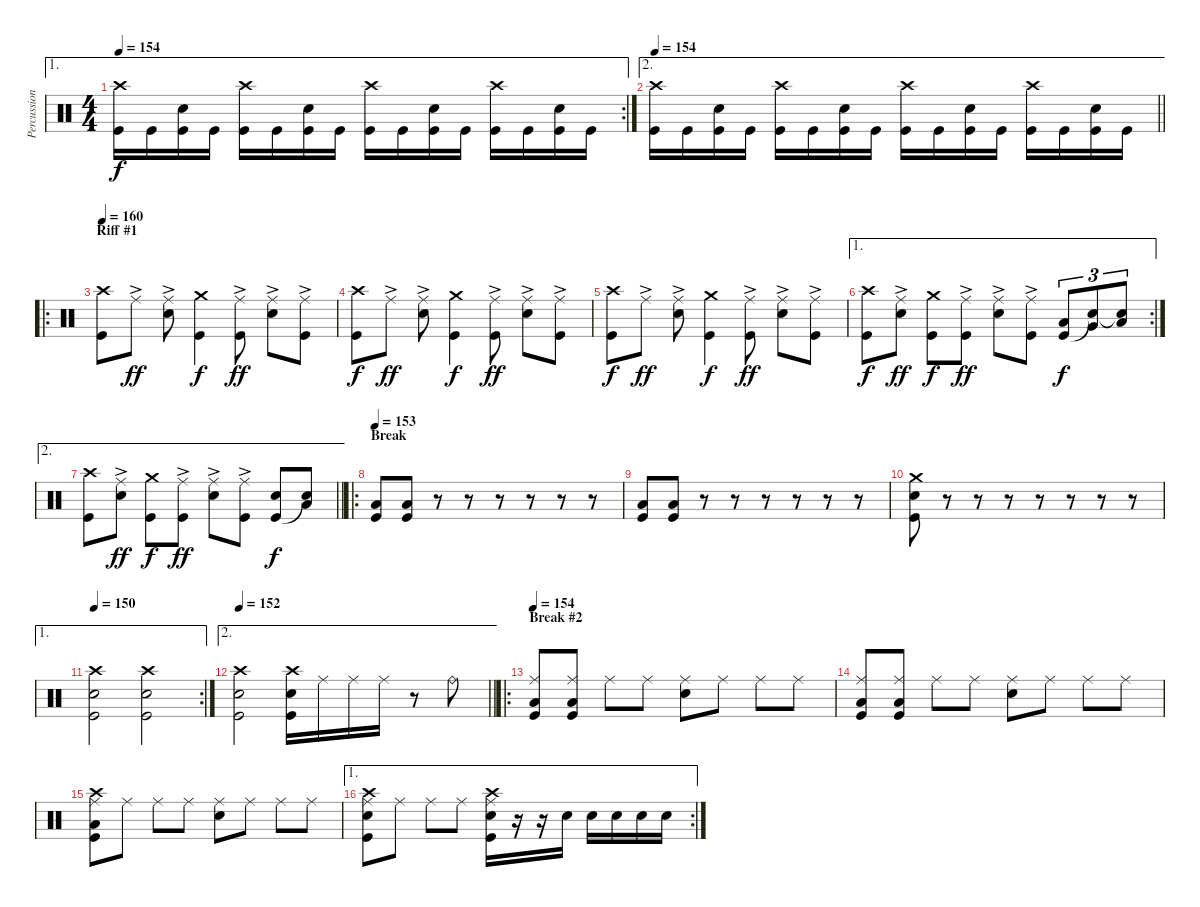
\track ("Percussion" "Percussion") {instrument percussion}
\staff {score}
\articulation defaults
\ae 1
\rc 2
\ts (4 4)
\tempo 154
\clef neutral
\ks c
("Crash high (hit)" "Kick (hit)").16{dy f} "Kick (hit)".16 ("Electric Snare (hit)" "Kick (hit)").16 "Kick (hit)".16 ("Crash high (hit)" "Kick (hit)").16 "Kick (hit)".16 ("Electric Snare (hit)" "Kick (hit)").16 "Kick (hit)".16 ("Crash high (hit)" "Kick (hit)").16 "Kick (hit)".16 ("Electric Snare (hit)" "Kick (hit)").16 "Kick (hit)".16 ("Crash high (hit)" "Kick (hit)").16 "Kick (hit)".16 ("Electric Snare (hit)" "Kick (hit)").16 "Kick (hit)".16 |
\ae 2
\tempo 154
\barLineRight lightlight
("Crash high (hit)" "Kick (hit)").16 "Kick (hit)".16 ("Electric Snare (hit)" "Kick (hit)").16 "Kick (hit)".16 ("Crash high (hit)" "Kick (hit)").16 "Kick (hit)".16 ("Electric Snare (hit)" "Kick (hit)").16 "Kick (hit)".16 ("Crash high (hit)" "Kick (hit)").16 "Kick (hit)".16 ("Electric Snare (hit)" "Kick (hit)").16 "Kick (hit)".16 ("Crash high (hit)" "Kick (hit)").16 "Kick (hit)".16 ("Electric Snare (hit)" "Kick (hit)").16 "Kick (hit)".16 |
\ro
\section ("" "Riff #1")
\tempo 160
("Crash high (hit)" "Kick (hit)").8 "Ride (middle)"{ac}.8{dy ff} ("Ride (middle)"{ac} "Electric Snare (hit)").8 ("Crash medium (hit)" "Kick (hit)").4{dy f} ("Ride (middle)"{ac} "Kick (hit)").8{dy ff} ("Ride (middle)"{ac} "Electric Snare (hit)").8 ("Ride (middle)"{ac} "Kick (hit)").8 |
("Crash high (hit)" "Kick (hit)").8{dy f} "Ride (middle)"{ac}.8{dy ff} ("Ride (middle)"{ac} "Electric Snare (hit)").8 ("Crash medium (hit)" "Kick (hit)").4{dy f} ("Ride (middle)"{ac} "Kick (hit)").8{dy ff} ("Ride (middle)"{ac} "Electric Snare (hit)").8 ("Ride (middle)"{ac} "Kick (hit)").8 |
("Crash high (hit)" "Kick (hit)").8{dy f} "Ride (middle)"{ac}.8{dy ff} ("Ride (middle)"{ac} "Electric Snare (hit)").8 ("Crash medium (hit)" "Kick (hit)").4{dy f} ("Ride (middle)"{ac} "Kick (hit)").8{dy ff} ("Ride (middle)"{ac} "Electric Snare (hit)").8 ("Ride (middle)"{ac} "Kick (hit)").8 |
\ae 1
\rc 2
("Crash high (hit)" "Kick (hit)").8{dy f} ("Ride (middle)"{ac} "Electric Snare (hit)").8{dy ff} ("Crash medium (hit)" "Kick (hit)").8{dy f} ("Ride (middle)"{ac} "Kick (hit)").8{dy ff} ("Ride (middle)"{ac} "Electric Snare (hit)").8 ("Ride (middle)"{ac} "Kick (hit)").8 ("Low Tom (hit)" "Kick (hit)").8{tu (3 2) dy f} ("Very Low Tom (hit)" "Snare (hit)"{t}).8{tu (3 2)} ("Low Floor Tom (hit)" "Snare (hit)"{t}).8{tu (3 2)} |
\ae 2
\barLineRight lightlight
("Crash high (hit)" "Kick (hit)").8 ("Ride (middle)"{ac} "Electric Snare (hit)").8{dy ff} ("Crash medium (hit)" "Kick (hit)").8{dy f} ("Ride (middle)"{ac} "Kick (hit)").8{dy ff} ("Ride (middle)"{ac} "Electric Snare (hit)").8 ("Ride (middle)"{ac} "Kick (hit)").8 ("Electric Snare (hit)" "Kick (hit)").8{dy f} ("Low Floor Tom (hit)" "Snare (hit)"{t}).8 |
\ro
\section ("" "Break")
\tempo 153
("Low Floor Tom (hit)" "Kick (hit)").8 ("Low Floor Tom (hit)" "Kick (hit)").8 r.8 r.8 r.8 r.8 r.8 r.8 |
("Low Floor Tom (hit)" "Kick (hit)").8 ("Low Floor Tom (hit)" "Kick (hit)").8 r.8 r.8 r.8 r.8 r.8 r.8 |
("Crash medium (hit)" "Electric Snare (hit)" "Kick (hit)").8 r.8 r.8 r.8 r.8 r.8 r.8 r.8 |
\ae 1
\rc 2
\tempo 150
("Crash high (hit)" "Electric Snare (hit)" "Kick (hit)").2 ("Crash high (hit)" "Electric Snare (hit)" "Kick (hit)").2 |
\ae 2
\tempo 152
\barLineRight lightlight
("Crash high (hit)" "Electric Snare (hit)" "Kick (hit)").2 ("Crash high (hit)" "Electric Snare (hit)" "Kick (hit)").16 "Ride (middle)".16 "Ride (middle)".16 "Ride (middle)".16 r.8 "Ride (bell)".8 |
\ro
\section ("" "Break #2")
\tempo 154
("Ride (middle)" "Low Floor Tom (hit)" "Kick (hit)").8 ("Ride (middle)" "Low Floor Tom (hit)" "Kick (hit)").8 "Ride (middle)".8 "Ride (middle)".8 ("Ride (middle)" "Electric Snare (hit)").8 "Ride (middle)".8 "Ride (middle)".8 "Ride (middle)".8 |
("Ride (middle)" "Low Floor Tom (hit)" "Kick (hit)").8 ("Ride (middle)" "Low Floor Tom (hit)" "Kick (hit)").8 "Ride (middle)".8 "Ride (middle)".8 ("Ride (middle)" "Electric Snare (hit)").8 "Ride (middle)".8 "Ride (middle)".8 "Ride (middle)".8 |
("Ride (middle)" "Crash high (hit)" "Low Floor Tom (hit)" "Kick (hit)").8 "Ride (middle)".8 "Ride (middle)".8 "Ride (middle)".8 ("Ride (middle)" "Electric Snare (hit)").8 "Ride (middle)".8 "Ride (middle)".8 "Ride (middle)".8 |
\ae 1
\rc 2
("Ride (middle)" "Crash high (hit)" "Electric Snare (hit)" "Kick (hit)").8 "Ride (middle)".8 "Ride (middle)".8 "Ride (middle)".8 ("Ride (middle)" "Crash high (hit)" "Electric Snare (hit)" "Kick (hit)").16 r.16 r.16 "Electric Snare (hit)".16 "Electric Snare (hit)".16 "Electric Snare (hit)".16 "Electric Snare (hit)".16 "Electric Snare (hit)".16
